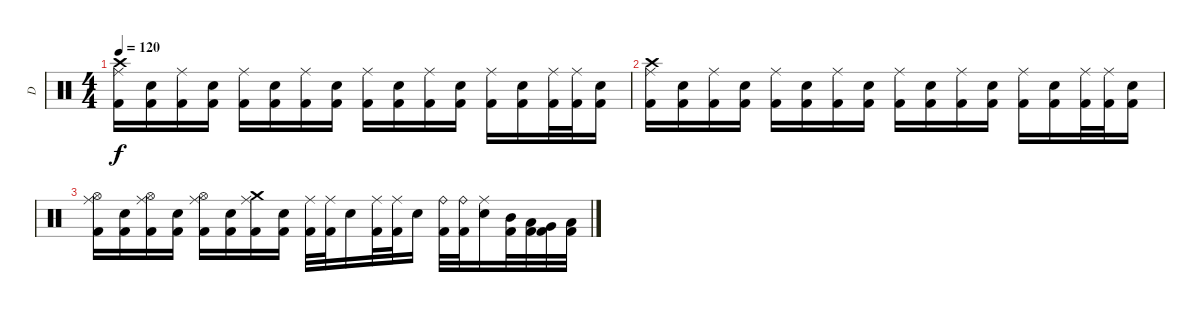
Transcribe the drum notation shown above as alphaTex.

\track ("D" "D") {instrument percussion}
\staff {score}
\articulation defaults
\ts (4 4)
\tempo 120
\clef neutral
\ks c
("Crash high (hit)" "Ride (middle)" "Kick (hit) 2").16{dy f} ("Electric Snare (hit)" "Kick (hit) 2").16 ("Ride (middle)" "Kick (hit) 2").16 ("Electric Snare (hit)" "Kick (hit) 2").16 ("Ride (middle)" "Kick (hit) 2").16 ("Electric Snare (hit)" "Kick (hit) 2").16 ("Ride (middle)" "Kick (hit) 2").16 ("Electric Snare (hit)" "Kick (hit) 2").16 ("Ride (middle)" "Kick (hit) 2").16 ("Electric Snare (hit)" "Kick (hit) 2").16 ("Ride (middle)" "Kick (hit) 2").16 ("Electric Snare (hit)" "Kick (hit) 2").16 ("Ride (middle)" "Kick (hit) 2").16 ("Electric Snare (hit)" "Kick (hit) 2").16 ("Ride (middle)" "Kick (hit) 2").32 ("Ride (middle)" "Kick (hit) 2").32 ("Electric Snare (hit)" "Kick (hit) 2").16 |
("Crash high (hit)" "Ride (middle)" "Kick (hit) 2").16 ("Electric Snare (hit)" "Kick (hit) 2").16 ("Ride (middle)" "Kick (hit) 2").16 ("Electric Snare (hit)" "Kick (hit) 2").16 ("Ride (middle)" "Kick (hit) 2").16 ("Electric Snare (hit)" "Kick (hit) 2").16 ("Ride (middle)" "Kick (hit) 2").16 ("Electric Snare (hit)" "Kick (hit) 2").16 ("Ride (middle)" "Kick (hit) 2").16 ("Electric Snare (hit)" "Kick (hit) 2").16 ("Ride (middle)" "Kick (hit) 2").16 ("Electric Snare (hit)" "Kick (hit) 2").16 ("Ride (middle)" "Kick (hit) 2").16 ("Electric Snare (hit)" "Kick (hit) 2").16 ("Ride (middle)" "Kick (hit) 2").32 ("Ride (middle)" "Kick (hit) 2").32 ("Electric Snare (hit)" "Kick (hit) 2").16 |
("Hi-Hat (open)" "Ride (middle)" "Kick (hit) 2").16 ("Electric Snare (hit)" "Kick (hit) 2").16 ("Hi-Hat (open)" "Ride (middle)" "Kick (hit) 2").16 ("Electric Snare (hit)" "Kick (hit) 2").16 ("Hi-Hat (open)" "Ride (middle)" "Kick (hit) 2").16 ("Electric Snare (hit)" "Kick (hit) 2").16 ("Crash medium (hit)" "Ride (middle)" "Kick (hit) 2").16 ("Electric Snare (hit)" "Kick (hit) 2").16 ("Ride (middle)" "Kick (hit) 2").32 ("Ride (middle)" "Kick (hit) 2").32 "Electric Snare (hit)".16 ("Ride (middle)" "Kick (hit) 2").32 ("Ride (middle)" "Kick (hit) 2").32 "Electric Snare (hit)".16 ("Ride (bell)" "Kick (hit) 2").32 ("Ride (bell)" "Kick (hit) 2").32 ("Ride (middle)" "Electric Snare (hit)").16 ("Mid Tom (hit)" "Kick (hit) 2").32 ("Low Tom (hit)" "Kick (hit) 2").32 ("Very Low Tom (hit)" "Kick (hit) 2").32 ("Low Floor Tom (hit)" "Kick (hit) 2").32
